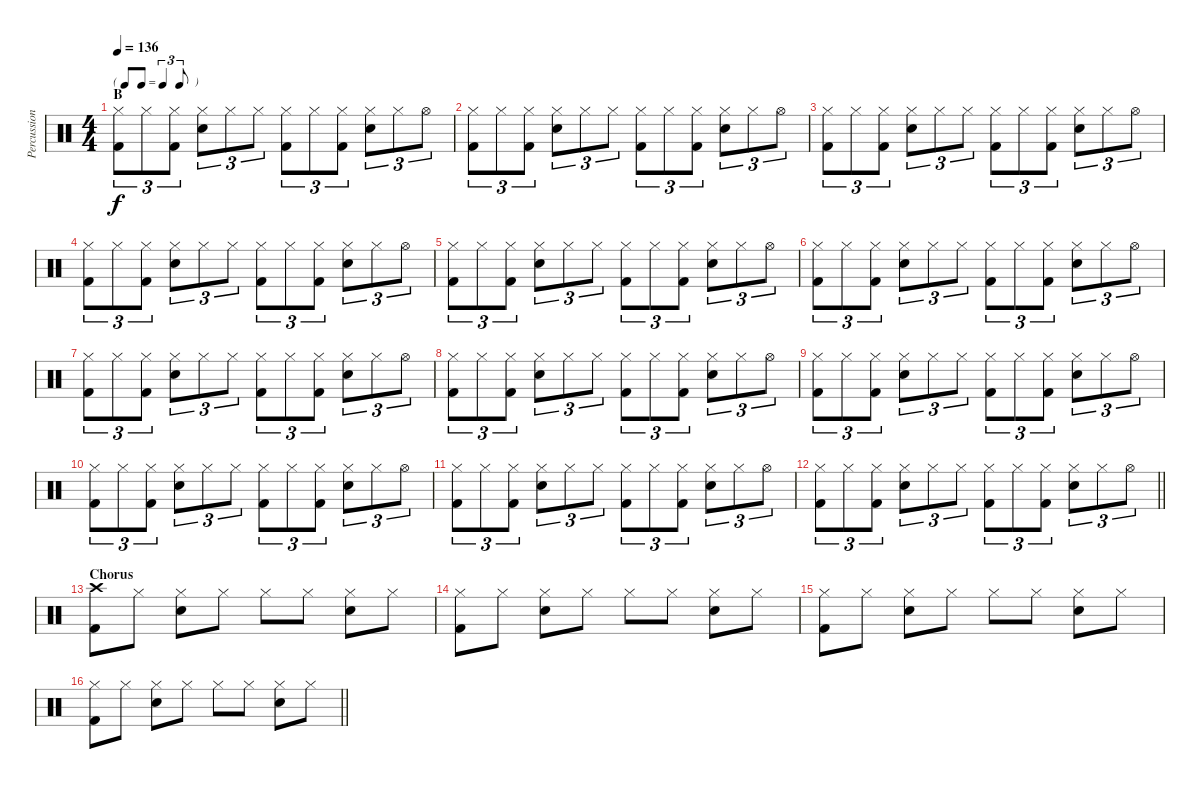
\track ("Percussions" "Percussion") {instrument percussion}
\staff {score}
\articulation defaults
\ts (4 4)
\tf triplet8th
\section ("" "B")
\tempo 136
\clef neutral
\ks c
("Hi-Hat (closed)" "Kick (hit) 2").8{tu (3 2) dy f} "Hi-Hat (closed)".8{tu (3 2)} ("Hi-Hat (closed)" "Kick (hit) 2").8{tu (3 2)} ("Hi-Hat (closed)" "Snare (hit) 2").8{tu (3 2)} "Hi-Hat (closed)".8{tu (3 2)} "Hi-Hat (closed)".8{tu (3 2)} ("Hi-Hat (closed)" "Kick (hit) 2").8{tu (3 2)} "Hi-Hat (closed)".8{tu (3 2)} ("Hi-Hat (closed)" "Kick (hit) 2").8{tu (3 2)} ("Hi-Hat (closed)" "Snare (hit) 2").8{tu (3 2)} "Hi-Hat (closed)".8{tu (3 2)} "Hi-Hat (open)".8{tu (3 2)} |
("Hi-Hat (closed)" "Kick (hit) 2").8{tu (3 2)} "Hi-Hat (closed)".8{tu (3 2)} ("Hi-Hat (closed)" "Kick (hit) 2").8{tu (3 2)} ("Hi-Hat (closed)" "Snare (hit) 2").8{tu (3 2)} "Hi-Hat (closed)".8{tu (3 2)} "Hi-Hat (closed)".8{tu (3 2)} ("Hi-Hat (closed)" "Kick (hit) 2").8{tu (3 2)} "Hi-Hat (closed)".8{tu (3 2)} ("Hi-Hat (closed)" "Kick (hit) 2").8{tu (3 2)} ("Hi-Hat (closed)" "Snare (hit) 2").8{tu (3 2)} "Hi-Hat (closed)".8{tu (3 2)} "Hi-Hat (open)".8{tu (3 2)} |
("Hi-Hat (closed)" "Kick (hit) 2").8{tu (3 2)} "Hi-Hat (closed)".8{tu (3 2)} ("Hi-Hat (closed)" "Kick (hit) 2").8{tu (3 2)} ("Hi-Hat (closed)" "Snare (hit) 2").8{tu (3 2)} "Hi-Hat (closed)".8{tu (3 2)} "Hi-Hat (closed)".8{tu (3 2)} ("Hi-Hat (closed)" "Kick (hit) 2").8{tu (3 2)} "Hi-Hat (closed)".8{tu (3 2)} ("Hi-Hat (closed)" "Kick (hit) 2").8{tu (3 2)} ("Hi-Hat (closed)" "Snare (hit) 2").8{tu (3 2)} "Hi-Hat (closed)".8{tu (3 2)} "Hi-Hat (open)".8{tu (3 2)} |
("Hi-Hat (closed)" "Kick (hit) 2").8{tu (3 2)} "Hi-Hat (closed)".8{tu (3 2)} ("Hi-Hat (closed)" "Kick (hit) 2").8{tu (3 2)} ("Hi-Hat (closed)" "Snare (hit) 2").8{tu (3 2)} "Hi-Hat (closed)".8{tu (3 2)} "Hi-Hat (closed)".8{tu (3 2)} ("Hi-Hat (closed)" "Kick (hit) 2").8{tu (3 2)} "Hi-Hat (closed)".8{tu (3 2)} ("Hi-Hat (closed)" "Kick (hit) 2").8{tu (3 2)} ("Hi-Hat (closed)" "Snare (hit) 2").8{tu (3 2)} "Hi-Hat (closed)".8{tu (3 2)} "Hi-Hat (open)".8{tu (3 2)} |
("Hi-Hat (closed)" "Kick (hit) 2").8{tu (3 2)} "Hi-Hat (closed)".8{tu (3 2)} ("Hi-Hat (closed)" "Kick (hit) 2").8{tu (3 2)} ("Hi-Hat (closed)" "Snare (hit) 2").8{tu (3 2)} "Hi-Hat (closed)".8{tu (3 2)} "Hi-Hat (closed)".8{tu (3 2)} ("Hi-Hat (closed)" "Kick (hit) 2").8{tu (3 2)} "Hi-Hat (closed)".8{tu (3 2)} ("Hi-Hat (closed)" "Kick (hit) 2").8{tu (3 2)} ("Hi-Hat (closed)" "Snare (hit) 2").8{tu (3 2)} "Hi-Hat (closed)".8{tu (3 2)} "Hi-Hat (open)".8{tu (3 2)} |
("Hi-Hat (closed)" "Kick (hit) 2").8{tu (3 2)} "Hi-Hat (closed)".8{tu (3 2)} ("Hi-Hat (closed)" "Kick (hit) 2").8{tu (3 2)} ("Hi-Hat (closed)" "Snare (hit) 2").8{tu (3 2)} "Hi-Hat (closed)".8{tu (3 2)} "Hi-Hat (closed)".8{tu (3 2)} ("Hi-Hat (closed)" "Kick (hit) 2").8{tu (3 2)} "Hi-Hat (closed)".8{tu (3 2)} ("Hi-Hat (closed)" "Kick (hit) 2").8{tu (3 2)} ("Hi-Hat (closed)" "Snare (hit) 2").8{tu (3 2)} "Hi-Hat (closed)".8{tu (3 2)} "Hi-Hat (open)".8{tu (3 2)} |
("Hi-Hat (closed)" "Kick (hit) 2").8{tu (3 2)} "Hi-Hat (closed)".8{tu (3 2)} ("Hi-Hat (closed)" "Kick (hit) 2").8{tu (3 2)} ("Hi-Hat (closed)" "Snare (hit) 2").8{tu (3 2)} "Hi-Hat (closed)".8{tu (3 2)} "Hi-Hat (closed)".8{tu (3 2)} ("Hi-Hat (closed)" "Kick (hit) 2").8{tu (3 2)} "Hi-Hat (closed)".8{tu (3 2)} ("Hi-Hat (closed)" "Kick (hit) 2").8{tu (3 2)} ("Hi-Hat (closed)" "Snare (hit) 2").8{tu (3 2)} "Hi-Hat (closed)".8{tu (3 2)} "Hi-Hat (open)".8{tu (3 2)} |
("Hi-Hat (closed)" "Kick (hit) 2").8{tu (3 2)} "Hi-Hat (closed)".8{tu (3 2)} ("Hi-Hat (closed)" "Kick (hit) 2").8{tu (3 2)} ("Hi-Hat (closed)" "Snare (hit) 2").8{tu (3 2)} "Hi-Hat (closed)".8{tu (3 2)} "Hi-Hat (closed)".8{tu (3 2)} ("Hi-Hat (closed)" "Kick (hit) 2").8{tu (3 2)} "Hi-Hat (closed)".8{tu (3 2)} ("Hi-Hat (closed)" "Kick (hit) 2").8{tu (3 2)} ("Hi-Hat (closed)" "Snare (hit) 2").8{tu (3 2)} "Hi-Hat (closed)".8{tu (3 2)} "Hi-Hat (open)".8{tu (3 2)} |
("Hi-Hat (closed)" "Kick (hit) 2").8{tu (3 2)} "Hi-Hat (closed)".8{tu (3 2)} ("Hi-Hat (closed)" "Kick (hit) 2").8{tu (3 2)} ("Hi-Hat (closed)" "Snare (hit) 2").8{tu (3 2)} "Hi-Hat (closed)".8{tu (3 2)} "Hi-Hat (closed)".8{tu (3 2)} ("Hi-Hat (closed)" "Kick (hit) 2").8{tu (3 2)} "Hi-Hat (closed)".8{tu (3 2)} ("Hi-Hat (closed)" "Kick (hit) 2").8{tu (3 2)} ("Hi-Hat (closed)" "Snare (hit) 2").8{tu (3 2)} "Hi-Hat (closed)".8{tu (3 2)} "Hi-Hat (open)".8{tu (3 2)} |
("Hi-Hat (closed)" "Kick (hit) 2").8{tu (3 2)} "Hi-Hat (closed)".8{tu (3 2)} ("Hi-Hat (closed)" "Kick (hit) 2").8{tu (3 2)} ("Hi-Hat (closed)" "Snare (hit) 2").8{tu (3 2)} "Hi-Hat (closed)".8{tu (3 2)} "Hi-Hat (closed)".8{tu (3 2)} ("Hi-Hat (closed)" "Kick (hit) 2").8{tu (3 2)} "Hi-Hat (closed)".8{tu (3 2)} ("Hi-Hat (closed)" "Kick (hit) 2").8{tu (3 2)} ("Hi-Hat (closed)" "Snare (hit) 2").8{tu (3 2)} "Hi-Hat (closed)".8{tu (3 2)} "Hi-Hat (open)".8{tu (3 2)} |
("Hi-Hat (closed)" "Kick (hit) 2").8{tu (3 2)} "Hi-Hat (closed)".8{tu (3 2)} ("Hi-Hat (closed)" "Kick (hit) 2").8{tu (3 2)} ("Hi-Hat (closed)" "Snare (hit) 2").8{tu (3 2)} "Hi-Hat (closed)".8{tu (3 2)} "Hi-Hat (closed)".8{tu (3 2)} ("Hi-Hat (closed)" "Kick (hit) 2").8{tu (3 2)} "Hi-Hat (closed)".8{tu (3 2)} ("Hi-Hat (closed)" "Kick (hit) 2").8{tu (3 2)} ("Hi-Hat (closed)" "Snare (hit) 2").8{tu (3 2)} "Hi-Hat (closed)".8{tu (3 2)} "Hi-Hat (open)".8{tu (3 2)} |
\barLineRight lightlight
("Hi-Hat (closed)" "Kick (hit) 2").8{tu (3 2)} "Hi-Hat (closed)".8{tu (3 2)} ("Hi-Hat (closed)" "Kick (hit) 2").8{tu (3 2)} ("Hi-Hat (closed)" "Snare (hit) 2").8{tu (3 2)} "Hi-Hat (closed)".8{tu (3 2)} "Hi-Hat (closed)".8{tu (3 2)} ("Hi-Hat (closed)" "Kick (hit) 2").8{tu (3 2)} "Hi-Hat (closed)".8{tu (3 2)} ("Hi-Hat (closed)" "Kick (hit) 2").8{tu (3 2)} ("Hi-Hat (closed)" "Snare (hit) 2").8{tu (3 2)} "Hi-Hat (closed)".8{tu (3 2)} "Hi-Hat (open)".8{tu (3 2)} |
\section ("" "Chorus")
("Crash high (hit)" "Kick (hit) 2").8 "Hi-Hat (closed)".8 ("Hi-Hat (closed)" "Snare (hit) 2").8 "Hi-Hat (closed)".8 "Hi-Hat (closed)".8 "Hi-Hat (closed)".8 ("Hi-Hat (closed)" "Snare (hit) 2").8 "Hi-Hat (closed)".8 |
("Hi-Hat (closed)" "Kick (hit) 2").8 "Hi-Hat (closed)".8 ("Hi-Hat (closed)" "Snare (hit) 2").8 "Hi-Hat (closed)".8 "Hi-Hat (closed)".8 "Hi-Hat (closed)".8 ("Hi-Hat (closed)" "Snare (hit) 2").8 "Hi-Hat (closed)".8 |
("Hi-Hat (closed)" "Kick (hit) 2").8 "Hi-Hat (closed)".8 ("Hi-Hat (closed)" "Snare (hit) 2").8 "Hi-Hat (closed)".8 "Hi-Hat (closed)".8 "Hi-Hat (closed)".8 ("Hi-Hat (closed)" "Snare (hit) 2").8 "Hi-Hat (closed)".8 |
\barLineRight lightlight
("Hi-Hat (closed)" "Kick (hit) 2").8 "Hi-Hat (closed)".8 ("Hi-Hat (closed)" "Snare (hit) 2").8 "Hi-Hat (closed)".8 "Hi-Hat (closed)".8 "Hi-Hat (closed)".8 ("Hi-Hat (closed)" "Snare (hit) 2").8 "Hi-Hat (closed)".8
